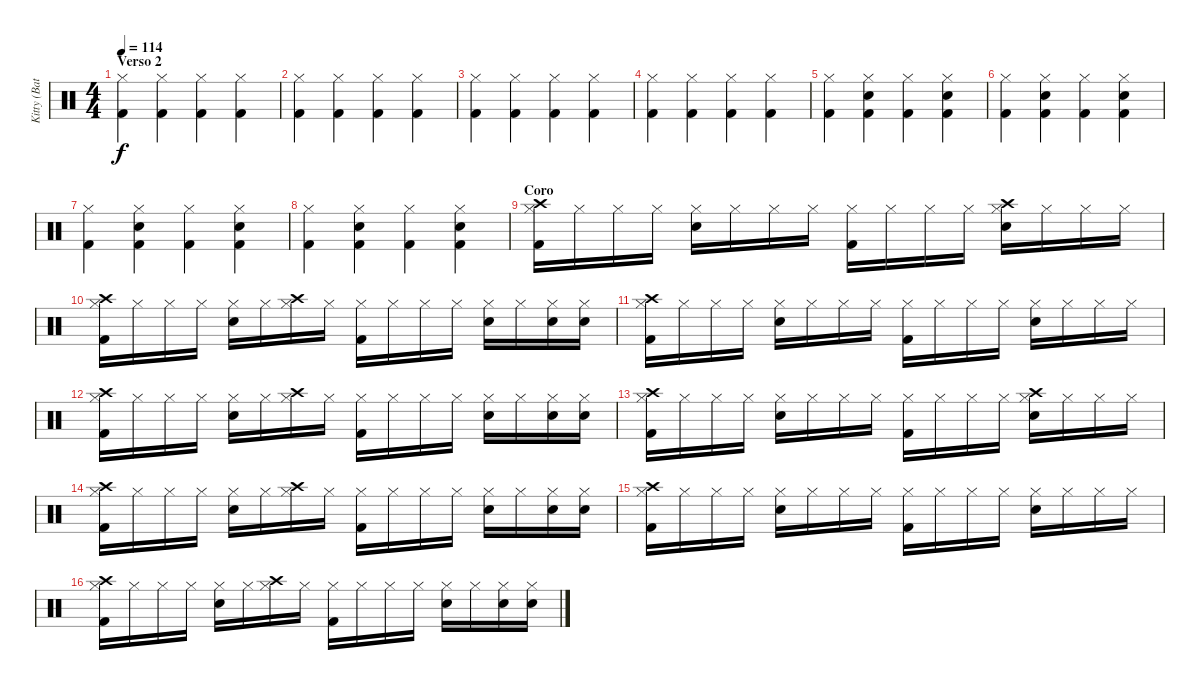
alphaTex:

\track ("Kitty (Bataca)" "Kitty (Bat") {instrument percussion}
\staff {score}
\articulation defaults
\ts (4 4)
\section ("" "Verso 2")
\tempo 114
\clef neutral
\ks c
("Hi-Hat (closed)" "Kick (hit) 2").4{dy f} ("Hi-Hat (closed)" "Kick (hit) 2").4 ("Hi-Hat (closed)" "Kick (hit) 2").4 ("Hi-Hat (closed)" "Kick (hit) 2").4 |
("Hi-Hat (closed)" "Kick (hit) 2").4 ("Hi-Hat (closed)" "Kick (hit) 2").4 ("Hi-Hat (closed)" "Kick (hit) 2").4 ("Hi-Hat (closed)" "Kick (hit) 2").4 |
("Hi-Hat (closed)" "Kick (hit) 2").4 ("Hi-Hat (closed)" "Kick (hit) 2").4 ("Hi-Hat (closed)" "Kick (hit) 2").4 ("Hi-Hat (closed)" "Kick (hit) 2").4 |
("Hi-Hat (closed)" "Kick (hit) 2").4 ("Hi-Hat (closed)" "Kick (hit) 2").4 ("Hi-Hat (closed)" "Kick (hit) 2").4 ("Hi-Hat (closed)" "Kick (hit) 2").4 |
("Hi-Hat (closed)" "Kick (hit) 2").4 ("Hi-Hat (closed)" "Snare (hit) 2" "Kick (hit) 2").4 ("Hi-Hat (closed)" "Kick (hit) 2").4 ("Hi-Hat (closed)" "Snare (hit) 2" "Kick (hit) 2").4 |
("Hi-Hat (closed)" "Kick (hit) 2").4 ("Hi-Hat (closed)" "Snare (hit) 2" "Kick (hit) 2").4 ("Hi-Hat (closed)" "Kick (hit) 2").4 ("Hi-Hat (closed)" "Snare (hit) 2" "Kick (hit) 2").4 |
("Hi-Hat (closed)" "Kick (hit) 2").4 ("Hi-Hat (closed)" "Snare (hit) 2" "Kick (hit) 2").4 ("Hi-Hat (closed)" "Kick (hit) 2").4 ("Hi-Hat (closed)" "Snare (hit) 2" "Kick (hit) 2").4 |
("Hi-Hat (closed)" "Kick (hit) 2").4 ("Hi-Hat (closed)" "Snare (hit) 2" "Kick (hit) 2").4 ("Hi-Hat (closed)" "Kick (hit) 2").4 ("Hi-Hat (closed)" "Snare (hit) 2" "Kick (hit) 2").4 |
\section ("" "Coro")
("Crash high (hit)" "Hi-Hat (closed)" "Kick (hit) 2").16 "Hi-Hat (closed)".16 "Hi-Hat (closed)".16 "Hi-Hat (closed)".16 ("Hi-Hat (closed)" "Snare (hit) 2").16 "Hi-Hat (closed)".16 "Hi-Hat (closed)".16 "Hi-Hat (closed)".16 ("Hi-Hat (closed)" "Kick (hit) 2").16 "Hi-Hat (closed)".16 "Hi-Hat (closed)".16 "Hi-Hat (closed)".16 ("Crash high (hit)" "Hi-Hat (closed)" "Snare (hit) 2").16 "Hi-Hat (closed)".16 "Hi-Hat (closed)".16 "Hi-Hat (closed)".16 |
("Crash high (hit)" "Hi-Hat (closed)" "Kick (hit) 2").16 "Hi-Hat (closed)".16 "Hi-Hat (closed)".16 "Hi-Hat (closed)".16 ("Hi-Hat (closed)" "Snare (hit) 2").16 "Hi-Hat (closed)".16 ("Crash high (hit)" "Hi-Hat (closed)").16 "Hi-Hat (closed)".16 ("Hi-Hat (closed)" "Kick (hit) 2").16 "Hi-Hat (closed)".16 "Hi-Hat (closed)".16 "Hi-Hat (closed)".16 ("Hi-Hat (closed)" "Snare (hit) 2").16 "Hi-Hat (closed)".16 ("Hi-Hat (closed)" "Snare (hit) 2").16 ("Hi-Hat (closed)" "Snare (hit) 2").16 |
("Crash high (hit)" "Hi-Hat (closed)" "Kick (hit) 2").16 "Hi-Hat (closed)".16 "Hi-Hat (closed)".16 "Hi-Hat (closed)".16 ("Hi-Hat (closed)" "Snare (hit) 2").16 "Hi-Hat (closed)".16 "Hi-Hat (closed)".16 "Hi-Hat (closed)".16 ("Hi-Hat (closed)" "Kick (hit) 2").16 "Hi-Hat (closed)".16 "Hi-Hat (closed)".16 "Hi-Hat (closed)".16 ("Hi-Hat (closed)" "Snare (hit) 2").16 "Hi-Hat (closed)".16 "Hi-Hat (closed)".16 "Hi-Hat (closed)".16 |
("Crash high (hit)" "Hi-Hat (closed)" "Kick (hit) 2").16 "Hi-Hat (closed)".16 "Hi-Hat (closed)".16 "Hi-Hat (closed)".16 ("Hi-Hat (closed)" "Snare (hit) 2").16 "Hi-Hat (closed)".16 ("Crash high (hit)" "Hi-Hat (closed)").16 "Hi-Hat (closed)".16 ("Hi-Hat (closed)" "Kick (hit) 2").16 "Hi-Hat (closed)".16 "Hi-Hat (closed)".16 "Hi-Hat (closed)".16 ("Hi-Hat (closed)" "Snare (hit) 2").16 "Hi-Hat (closed)".16 ("Hi-Hat (closed)" "Snare (hit) 2").16 ("Hi-Hat (closed)" "Snare (hit) 2").16 |
("Crash high (hit)" "Hi-Hat (closed)" "Kick (hit) 2").16 "Hi-Hat (closed)".16 "Hi-Hat (closed)".16 "Hi-Hat (closed)".16 ("Hi-Hat (closed)" "Snare (hit) 2").16 "Hi-Hat (closed)".16 "Hi-Hat (closed)".16 "Hi-Hat (closed)".16 ("Hi-Hat (closed)" "Kick (hit) 2").16 "Hi-Hat (closed)".16 "Hi-Hat (closed)".16 "Hi-Hat (closed)".16 ("Crash high (hit)" "Hi-Hat (closed)" "Snare (hit) 2").16 "Hi-Hat (closed)".16 "Hi-Hat (closed)".16 "Hi-Hat (closed)".16 |
("Crash high (hit)" "Hi-Hat (closed)" "Kick (hit) 2").16 "Hi-Hat (closed)".16 "Hi-Hat (closed)".16 "Hi-Hat (closed)".16 ("Hi-Hat (closed)" "Snare (hit) 2").16 "Hi-Hat (closed)".16 ("Crash high (hit)" "Hi-Hat (closed)").16 "Hi-Hat (closed)".16 ("Hi-Hat (closed)" "Kick (hit) 2").16 "Hi-Hat (closed)".16 "Hi-Hat (closed)".16 "Hi-Hat (closed)".16 ("Hi-Hat (closed)" "Snare (hit) 2").16 "Hi-Hat (closed)".16 ("Hi-Hat (closed)" "Snare (hit) 2").16 ("Hi-Hat (closed)" "Snare (hit) 2").16 |
("Crash high (hit)" "Hi-Hat (closed)" "Kick (hit) 2").16 "Hi-Hat (closed)".16 "Hi-Hat (closed)".16 "Hi-Hat (closed)".16 ("Hi-Hat (closed)" "Snare (hit) 2").16 "Hi-Hat (closed)".16 "Hi-Hat (closed)".16 "Hi-Hat (closed)".16 ("Hi-Hat (closed)" "Kick (hit) 2").16 "Hi-Hat (closed)".16 "Hi-Hat (closed)".16 "Hi-Hat (closed)".16 ("Hi-Hat (closed)" "Snare (hit) 2").16 "Hi-Hat (closed)".16 "Hi-Hat (closed)".16 "Hi-Hat (closed)".16 |
("Crash high (hit)" "Hi-Hat (closed)" "Kick (hit) 2").16 "Hi-Hat (closed)".16 "Hi-Hat (closed)".16 "Hi-Hat (closed)".16 ("Hi-Hat (closed)" "Snare (hit) 2").16 "Hi-Hat (closed)".16 ("Crash high (hit)" "Hi-Hat (closed)").16 "Hi-Hat (closed)".16 ("Hi-Hat (closed)" "Kick (hit) 2").16 "Hi-Hat (closed)".16 "Hi-Hat (closed)".16 "Hi-Hat (closed)".16 ("Hi-Hat (closed)" "Snare (hit) 2").16 "Hi-Hat (closed)".16 ("Hi-Hat (closed)" "Snare (hit) 2").16 ("Hi-Hat (closed)" "Snare (hit) 2").16
